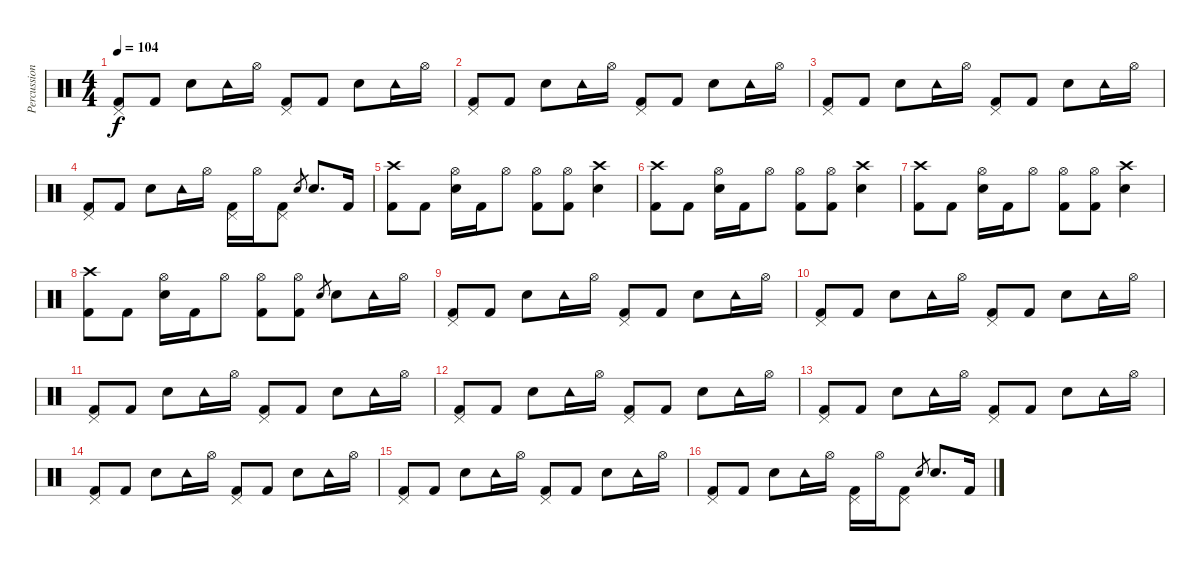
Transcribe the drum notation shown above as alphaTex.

\track ("Percussions" "Percussion") {instrument percussion}
\staff {score}
\articulation defaults
\ts (4 4)
\tempo 104
\clef neutral
\ks c
("Pedal Hi-Hat (hit)" "Kick (hit) 2").8{dy f} "Kick (hit) 2".8 "Snare (hit) 2".8 "Tambourine (hit)".16 "Hi-Hat (open)".16 ("Pedal Hi-Hat (hit)" "Kick (hit) 2").8 "Kick (hit) 2".8 "Snare (hit) 2".8 "Tambourine (hit)".16 "Hi-Hat (open)".16 |
("Pedal Hi-Hat (hit)" "Kick (hit) 2").8 "Kick (hit) 2".8 "Snare (hit) 2".8 "Tambourine (hit)".16 "Hi-Hat (open)".16 ("Pedal Hi-Hat (hit)" "Kick (hit) 2").8 "Kick (hit) 2".8 "Snare (hit) 2".8 "Tambourine (hit)".16 "Hi-Hat (open)".16 |
("Pedal Hi-Hat (hit)" "Kick (hit) 2").8 "Kick (hit) 2".8 "Snare (hit) 2".8 "Tambourine (hit)".16 "Hi-Hat (open)".16 ("Pedal Hi-Hat (hit)" "Kick (hit) 2").8 "Kick (hit) 2".8 "Snare (hit) 2".8 "Tambourine (hit)".16 "Hi-Hat (open)".16 |
("Pedal Hi-Hat (hit)" "Kick (hit) 2").8 "Kick (hit) 2".8 "Snare (hit) 2".8 "Tambourine (hit)".16 "Hi-Hat (open)".16 ("Pedal Hi-Hat (hit)" "Kick (hit) 2").16 "Hi-Hat (open)".16 ("Pedal Hi-Hat (hit)" "Kick (hit) 2").8 "Snare (hit) 2".8{gr} "Snare (hit) 2".8{d} "Kick (hit) 2".16 |
("Crash high (hit)" "Kick (hit) 2").8 "Kick (hit) 2".8 ("Hi-Hat (open)" "Snare (hit) 2").16 "Kick (hit) 2".16 "Hi-Hat (open)".8 ("Hi-Hat (open)" "Kick (hit) 2").8 ("Hi-Hat (open)" "Kick (hit) 2").8 ("Crash high (hit)" "Snare (hit) 2").4 |
("Crash high (hit)" "Kick (hit) 2").8 "Kick (hit) 2".8 ("Hi-Hat (open)" "Snare (hit) 2").16 "Kick (hit) 2".16 "Hi-Hat (open)".8 ("Hi-Hat (open)" "Kick (hit) 2").8 ("Hi-Hat (open)" "Kick (hit) 2").8 ("Crash high (hit)" "Snare (hit) 2").4 |
("Crash high (hit)" "Kick (hit) 2").8 "Kick (hit) 2".8 ("Hi-Hat (open)" "Snare (hit) 2").16 "Kick (hit) 2".16 "Hi-Hat (open)".8 ("Hi-Hat (open)" "Kick (hit) 2").8 ("Hi-Hat (open)" "Kick (hit) 2").8 ("Crash high (hit)" "Snare (hit) 2").4 |
("Crash high (hit)" "Kick (hit) 2").8 "Kick (hit) 2".8 ("Hi-Hat (open)" "Snare (hit) 2").16 "Kick (hit) 2".16 "Hi-Hat (open)".8 ("Hi-Hat (open)" "Kick (hit) 2").8 ("Hi-Hat (open)" "Kick (hit) 2").8 "Snare (hit) 2".8{gr} "Snare (hit) 2".8 "Tambourine (hit)".16 "Hi-Hat (open)".16 |
("Pedal Hi-Hat (hit)" "Kick (hit) 2").8 "Kick (hit) 2".8 "Snare (hit) 2".8 "Tambourine (hit)".16 "Hi-Hat (open)".16 ("Pedal Hi-Hat (hit)" "Kick (hit) 2").8 "Kick (hit) 2".8 "Snare (hit) 2".8 "Tambourine (hit)".16 "Hi-Hat (open)".16 |
("Pedal Hi-Hat (hit)" "Kick (hit) 2").8 "Kick (hit) 2".8 "Snare (hit) 2".8 "Tambourine (hit)".16 "Hi-Hat (open)".16 ("Pedal Hi-Hat (hit)" "Kick (hit) 2").8 "Kick (hit) 2".8 "Snare (hit) 2".8 "Tambourine (hit)".16 "Hi-Hat (open)".16 |
("Pedal Hi-Hat (hit)" "Kick (hit) 2").8 "Kick (hit) 2".8 "Snare (hit) 2".8 "Tambourine (hit)".16 "Hi-Hat (open)".16 ("Pedal Hi-Hat (hit)" "Kick (hit) 2").8 "Kick (hit) 2".8 "Snare (hit) 2".8 "Tambourine (hit)".16 "Hi-Hat (open)".16 |
("Pedal Hi-Hat (hit)" "Kick (hit) 2").8 "Kick (hit) 2".8 "Snare (hit) 2".8 "Tambourine (hit)".16 "Hi-Hat (open)".16 ("Pedal Hi-Hat (hit)" "Kick (hit) 2").8 "Kick (hit) 2".8 "Snare (hit) 2".8 "Tambourine (hit)".16 "Hi-Hat (open)".16 |
("Pedal Hi-Hat (hit)" "Kick (hit) 2").8 "Kick (hit) 2".8 "Snare (hit) 2".8 "Tambourine (hit)".16 "Hi-Hat (open)".16 ("Pedal Hi-Hat (hit)" "Kick (hit) 2").8 "Kick (hit) 2".8 "Snare (hit) 2".8 "Tambourine (hit)".16 "Hi-Hat (open)".16 |
("Pedal Hi-Hat (hit)" "Kick (hit) 2").8 "Kick (hit) 2".8 "Snare (hit) 2".8 "Tambourine (hit)".16 "Hi-Hat (open)".16 ("Pedal Hi-Hat (hit)" "Kick (hit) 2").8 "Kick (hit) 2".8 "Snare (hit) 2".8 "Tambourine (hit)".16 "Hi-Hat (open)".16 |
("Pedal Hi-Hat (hit)" "Kick (hit) 2").8 "Kick (hit) 2".8 "Snare (hit) 2".8 "Tambourine (hit)".16 "Hi-Hat (open)".16 ("Pedal Hi-Hat (hit)" "Kick (hit) 2").8 "Kick (hit) 2".8 "Snare (hit) 2".8 "Tambourine (hit)".16 "Hi-Hat (open)".16 |
("Pedal Hi-Hat (hit)" "Kick (hit) 2").8 "Kick (hit) 2".8 "Snare (hit) 2".8 "Tambourine (hit)".16 "Hi-Hat (open)".16 ("Pedal Hi-Hat (hit)" "Kick (hit) 2").16 "Hi-Hat (open)".16 ("Pedal Hi-Hat (hit)" "Kick (hit) 2").8 "Snare (hit) 2".8{gr} "Snare (hit) 2".8{d} "Kick (hit) 2".16
